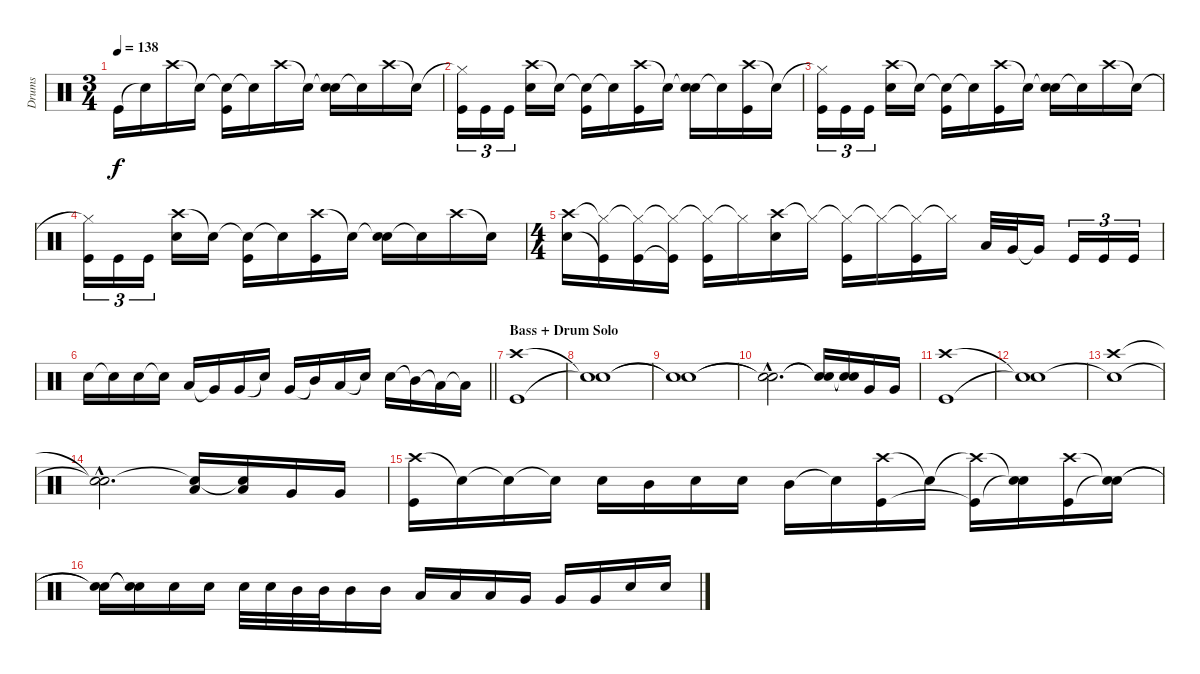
\track ("Drums" "Drums") {instrument percussion}
\staff {score}
\articulation defaults
\ts (3 4)
\tempo 138
\clef neutral
\ks c "Kick (hit)".16{dy f} "Snare (hit)"{t}.16 "Crash high (hit)".16 "Snare (hit)"{t}.16
("Snare (hit)"{t} "Kick (hit)").16 "Snare (hit)"{t}.16 "Crash high (hit)".16 "Snare (hit)"{t}.16 ("Snare (hit)"{t} "Electric Snare (hit)").16 "Snare (hit)"{t}.16 "Crash high (hit)".16 "Snare (hit)"{t}.16 |
("Hi-Hat (closed)"{t} "Kick (hit)").16{tu (3 2)} "Kick (hit)".16{tu (3 2)} "Kick (hit)".16{tu (3 2)} ("Crash high (hit)" "Electric Snare (hit)").16 "Snare (hit)"{t}.16 ("Snare (hit)"{t} "Kick (hit)").16 "Snare (hit)"{t}.16 ("Crash high (hit)" "Kick (hit)").16 "Snare (hit)"{t}.16 ("Snare (hit)"{t} "Electric Snare (hit)").16 "Snare (hit)"{t}.16 ("Crash high (hit)" "Kick (hit)").16 "Snare (hit)"{t}.16 |
("Hi-Hat (closed)"{t} "Kick (hit)").16{tu (3 2)} "Kick (hit)".16{tu (3 2)} "Kick (hit)".16{tu (3 2)} ("Crash high (hit)" "Electric Snare (hit)").16 "Snare (hit)"{t}.16 ("Snare (hit)"{t} "Kick (hit)").16 "Snare (hit)"{t}.16 ("Crash high (hit)" "Kick (hit)").16 "Snare (hit)"{t}.16 ("Snare (hit)"{t} "Electric Snare (hit)").16 "Snare (hit)"{t}.16 "Crash high (hit)".16 "Snare (hit)"{t}.16 |
("Hi-Hat (closed)"{t} "Kick (hit)").16{tu (3 2)} "Kick (hit)".16{tu (3 2)} "Kick (hit)".16{tu (3 2)} ("Crash high (hit)" "Electric Snare (hit)").16 "Snare (hit)"{t}.16 ("Snare (hit)"{t} "Kick (hit)").16 "Snare (hit)"{t}.16 ("Crash high (hit)" "Kick (hit)").16 "Snare (hit)"{t}.16 ("Snare (hit)"{t} "Electric Snare (hit)").16 "Snare (hit)"{t}.16 "Crash high (hit)".16 "Snare (hit)"{t}.16 |
\ts (4 4)
("Crash high (hit)" "Electric Snare (hit)").16 ("Hi-Hat (closed)"{t} "Kick (hit)"{t}).16 ("Hi-Hat (closed)"{t} "Kick (hit)").16 ("Hi-Hat (closed)"{t} "Kick (hit)"{t}).16 ("Hi-Hat (closed)"{t} "Kick (hit)").16 "Hi-Hat (closed)"{t}.16 ("Crash high (hit)" "Electric Snare (hit)").16 "Hi-Hat (closed)"{t}.16 ("Hi-Hat (closed)"{t} "Kick (hit)").16 "Hi-Hat (closed)"{t}.16 ("Hi-Hat (closed)"{t} "Kick (hit)").16 "Hi-Hat (closed)"{t}.16 "Low Tom (hit)".32 "Very Low Tom (hit)".32 "Very Low Tom (hit)"{t}.16 "Kick (hit)".16{tu (3 2)} "Kick (hit)".16{tu (3 2)} "Kick (hit)".16{tu (3 2)} |
\barLineRight lightlight "Electric Snare (hit)".16 "Snare (hit)"{t}.16 "Electric Snare (hit)".16 "Electric Snare (hit)"{t}.16 "Low Tom (hit)".16 "Very Low Tom (hit)"{t}.16 "Very Low Tom (hit)".16 "Electric Snare (hit)"{t}.16 "Very Low Tom (hit)".16 "Mid Tom (hit)"{t}.16 "Low Floor Tom (hit)".16 "Electric Snare (hit)"{t}.16 "Electric Snare (hit)".16 "Mid Tom (hit)"{t}.16 "Low Tom (hit)"{t}.16 "Low Tom (hit)"{t}.16
|
\section ("" "Bass + Drum Solo")
("Crash high (hit)" "Kick (hit)").1 |
("Snare (hit)"{t} "Snare (hit)"{t}).1 |
("Snare (hit)"{t} "Snare (hit)"{t}).1 |
("Snare (hit)"{hac t} "Snare (hit)"{hac t}).2{d} ("Snare (hit)"{t} "Snare (hit)"{t}).16 ("Snare (hit)"{t} "Snare (hit)"{t}).16 "Very Low Tom (hit)".16 "Very Low Tom (hit)".16 |
("Crash high (hit)" "Kick (hit)").1 |
("Snare (hit)"{t} "Snare (hit)"{t}).1 |
("Crash high (hit)" "Snare (hit)"{t}).1 |
("Snare (hit)"{hac t} "Snare (hit)"{hac t}).2{d} ("Snare (hit)"{t} "Low Tom (hit)").16 ("Snare (hit)"{t} "Low Tom (hit)").16 "Very Low Tom (hit)".16 "Very Low Tom (hit)".16 |
("Crash high (hit)" "Kick (hit)").16 "Snare (hit)"{t}.16 "Snare (hit)"{t}.16 "Snare (hit)"{t}.16 "Electric Snare (hit)".16 "Mid Tom (hit)".16 "Electric Snare (hit)".16 "Electric Snare (hit)".16 "Mid Tom (hit)".16 "Snare (hit)"{t}.16 ("Crash high (hit)" "Kick (hit)").16 "Snare (hit)"{t}.16 ("Crash high (hit)"{t} "Kick (hit)"{t}).16 ("Snare (hit)"{t} "Snare (hit)"{t}).16 ("Crash high (hit)" "Kick (hit)").16 ("Snare (hit)"{t} "Snare (hit)"{t}).16 |
("Snare (hit)"{t} "Snare (hit)"{t}).16 ("Snare (hit)"{t} "Snare (hit)"{t}).16 "Electric Snare (hit)".16 "Electric Snare (hit)".16 "Electric Snare (hit)".32 "Electric Snare (hit)".32 "Mid Tom (hit)".32 "Mid Tom (hit)".32 "Mid Tom (hit)".16 "Mid Tom (hit)".16 "Low Tom (hit)".16 "Low Tom (hit)".16 "Low Tom (hit)".16 "Very Low Tom (hit)".16 "Very Low Tom (hit)".16 "Very Low Tom (hit)".16 "Electric Snare (hit)".16 "Electric Snare (hit)".16
